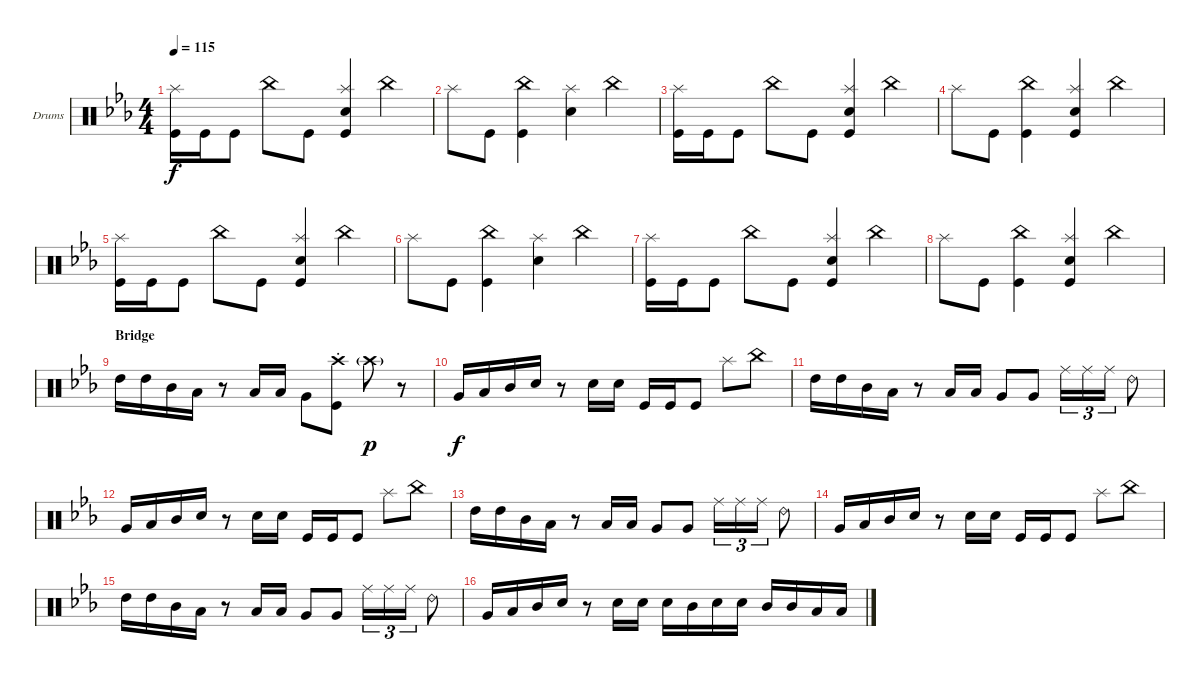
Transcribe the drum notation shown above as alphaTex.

\bracketExtendMode groupsimilarinstruments
\firstSystemTrackNameOrientation horizontal
\otherSystemsTrackNameOrientation horizontal
\track ("Drumkit" "Drums") {instrument percussion}
\staff {score}
\articulation defaults
\ts (4 4)
\tempo 115
\clef neutral
\ks cminor
("Kick (hit)" "Splash (hit)").16{dy f} "Kick (hit)".16 "Kick (hit)".8 "China (hit)".8 "Kick (hit)".8 ("Snare (hit) 2" "Kick (hit)" "Splash (hit)").4 "China (hit)".4 |
"Splash (hit)".8 "Kick (hit)".8 ("Kick (hit)" "China (hit)").4 ("Splash (hit)" "Snare (hit) 2").4 "China (hit)".4 |
("Kick (hit)" "Splash (hit)").16 "Kick (hit)".16 "Kick (hit)".8 "China (hit)".8 "Kick (hit)".8 ("Snare (hit) 2" "Kick (hit)" "Splash (hit)").4 "China (hit)".4 |
"Splash (hit)".8 "Kick (hit)".8 ("Kick (hit)" "China (hit)").4 ("Kick (hit)" "Splash (hit)" "Snare (hit) 2").4 "China (hit)".4 |
("Kick (hit)" "Splash (hit)").16 "Kick (hit)".16 "Kick (hit)".8 "China (hit)".8 "Kick (hit)".8 ("Snare (hit) 2" "Kick (hit)" "Splash (hit)").4 "China (hit)".4 |
"Splash (hit)".8 "Kick (hit)".8 ("Kick (hit)" "China (hit)").4 ("Splash (hit)" "Snare (hit) 2").4 "China (hit)".4 |
("Kick (hit)" "Splash (hit)").16 "Kick (hit)".16 "Kick (hit)".8 "China (hit)".8 "Kick (hit)".8 ("Snare (hit) 2" "Kick (hit)" "Splash (hit)").4 "China (hit)".4 |
"Splash (hit)".8 "Kick (hit)".8 ("Kick (hit)" "China (hit)").4 ("Kick (hit)" "Splash (hit)" "Snare (hit) 2").4 "China (hit)".4 |
\section ("" "Bridge")
"High Tom (hit)".16 "High Tom (hit)".16 "Mid Tom (hit)".16 "Low Tom (hit)".16 r.8 "Low Tom (hit)".16 "Low Tom (hit)".16 "Very Low Tom (hit)".8 ("Kick (hit)" "Crash high (hit)"{st}).8 "Crash high (hit)"{g}.8{dy p} r.8 |
"Very Low Tom (hit)".16{dy f} "Low Tom (hit)".16 "Mid Tom (hit)".16 "Snare (hit) 2".16 r.8 "Snare (hit) 2".16 "Snare (hit) 2".16 "Kick (hit)".16 "Kick (hit)".16 "Kick (hit)".8 "Splash (hit)".8 "China (hit)".8 |
"High Tom (hit)".16 "High Tom (hit)".16 "Mid Tom (hit)".16 "Low Tom (hit)".16 r.8 "Low Tom (hit)".16 "Low Tom (hit)".16 "Very Low Tom (hit)".8 "Very Low Tom (hit)".8 "Ride (middle)".16{tu (3 2)} "Ride (middle)".16{tu (3 2)} "Ride (middle)".16{tu (3 2)} "Ride (bell) 2".8 |
"Very Low Tom (hit)".16 "Low Tom (hit)".16 "Mid Tom (hit)".16 "Snare (hit) 2".16 r.8 "Snare (hit) 2".16 "Snare (hit) 2".16 "Kick (hit)".16 "Kick (hit)".16 "Kick (hit)".8 "Splash (hit)".8 "China (hit)".8 |
"High Tom (hit)".16 "High Tom (hit)".16 "Mid Tom (hit)".16 "Low Tom (hit)".16 r.8 "Low Tom (hit)".16 "Low Tom (hit)".16 "Very Low Tom (hit)".8 "Very Low Tom (hit)".8 "Ride (middle)".16{tu (3 2)} "Ride (middle)".16{tu (3 2)} "Ride (middle)".16{tu (3 2)} "Ride (bell) 2".8 |
"Very Low Tom (hit)".16 "Low Tom (hit)".16 "Mid Tom (hit)".16 "Snare (hit) 2".16 r.8 "Snare (hit) 2".16 "Snare (hit) 2".16 "Kick (hit)".16 "Kick (hit)".16 "Kick (hit)".8 "Splash (hit)".8 "China (hit)".8 |
"High Tom (hit)".16 "High Tom (hit)".16 "Mid Tom (hit)".16 "Low Tom (hit)".16 r.8 "Low Tom (hit)".16 "Low Tom (hit)".16 "Very Low Tom (hit)".8 "Very Low Tom (hit)".8 "Ride (middle)".16{tu (3 2)} "Ride (middle)".16{tu (3 2)} "Ride (middle)".16{tu (3 2)} "Ride (bell) 2".8 |
"Very Low Tom (hit)".16 "Low Tom (hit)".16 "Mid Tom (hit)".16 "Snare (hit) 2".16 r.8 "Snare (hit) 2".16 "Snare (hit) 2".16 "Snare (hit) 2".16 "Mid Tom (hit)".16 "Snare (hit) 2".16 "Snare (hit) 2".16 "Mid Tom (hit)".16 "Mid Tom (hit)".16 "Low Tom (hit)".16 "Low Tom (hit)".16
